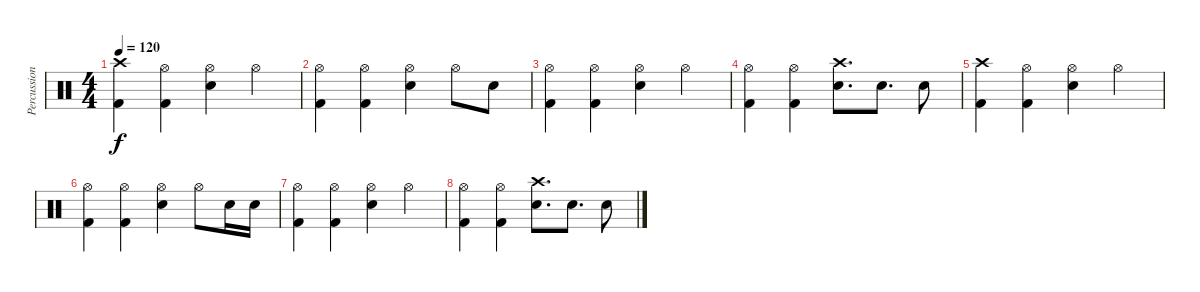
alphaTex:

\track ("Percussion" "Percussion") {instrument percussion}
\staff {score}
\articulation defaults
\ts (4 4)
\tempo 120
\clef neutral
\ks c
("Crash high (hit)" "Kick (hit) 2").4{dy f} ("Hi-Hat (open)" "Kick (hit) 2").4 ("Hi-Hat (open)" "Electric Snare (hit)").4 "Hi-Hat (open)".4 |
("Hi-Hat (open)" "Kick (hit) 2").4 ("Hi-Hat (open)" "Kick (hit) 2").4 ("Hi-Hat (open)" "Electric Snare (hit)").4 "Hi-Hat (open)".8 "Electric Snare (hit)".8 |
("Hi-Hat (open)" "Kick (hit) 2").4 ("Hi-Hat (open)" "Kick (hit) 2").4 ("Hi-Hat (open)" "Electric Snare (hit)").4 "Hi-Hat (open)".4 |
("Hi-Hat (open)" "Kick (hit) 2").4 ("Hi-Hat (open)" "Kick (hit) 2").4 ("Crash high (hit)" "Electric Snare (hit)").8{d} "Electric Snare (hit)".8{d} "Electric Snare (hit)".8 |
("Crash high (hit)" "Kick (hit) 2").4 ("Hi-Hat (open)" "Kick (hit) 2").4 ("Hi-Hat (open)" "Electric Snare (hit)").4 "Hi-Hat (open)".4 |
("Hi-Hat (open)" "Kick (hit) 2").4 ("Hi-Hat (open)" "Kick (hit) 2").4 ("Hi-Hat (open)" "Electric Snare (hit)").4 "Hi-Hat (open)".8 "Electric Snare (hit)".16 "Electric Snare (hit)".16 |
("Hi-Hat (open)" "Kick (hit) 2").4 ("Hi-Hat (open)" "Kick (hit) 2").4 ("Hi-Hat (open)" "Electric Snare (hit)").4 "Hi-Hat (open)".4 |
("Hi-Hat (open)" "Kick (hit) 2").4 ("Hi-Hat (open)" "Kick (hit) 2").4 ("Crash high (hit)" "Electric Snare (hit)").8{d} "Electric Snare (hit)".8{d} "Electric Snare (hit)".8
